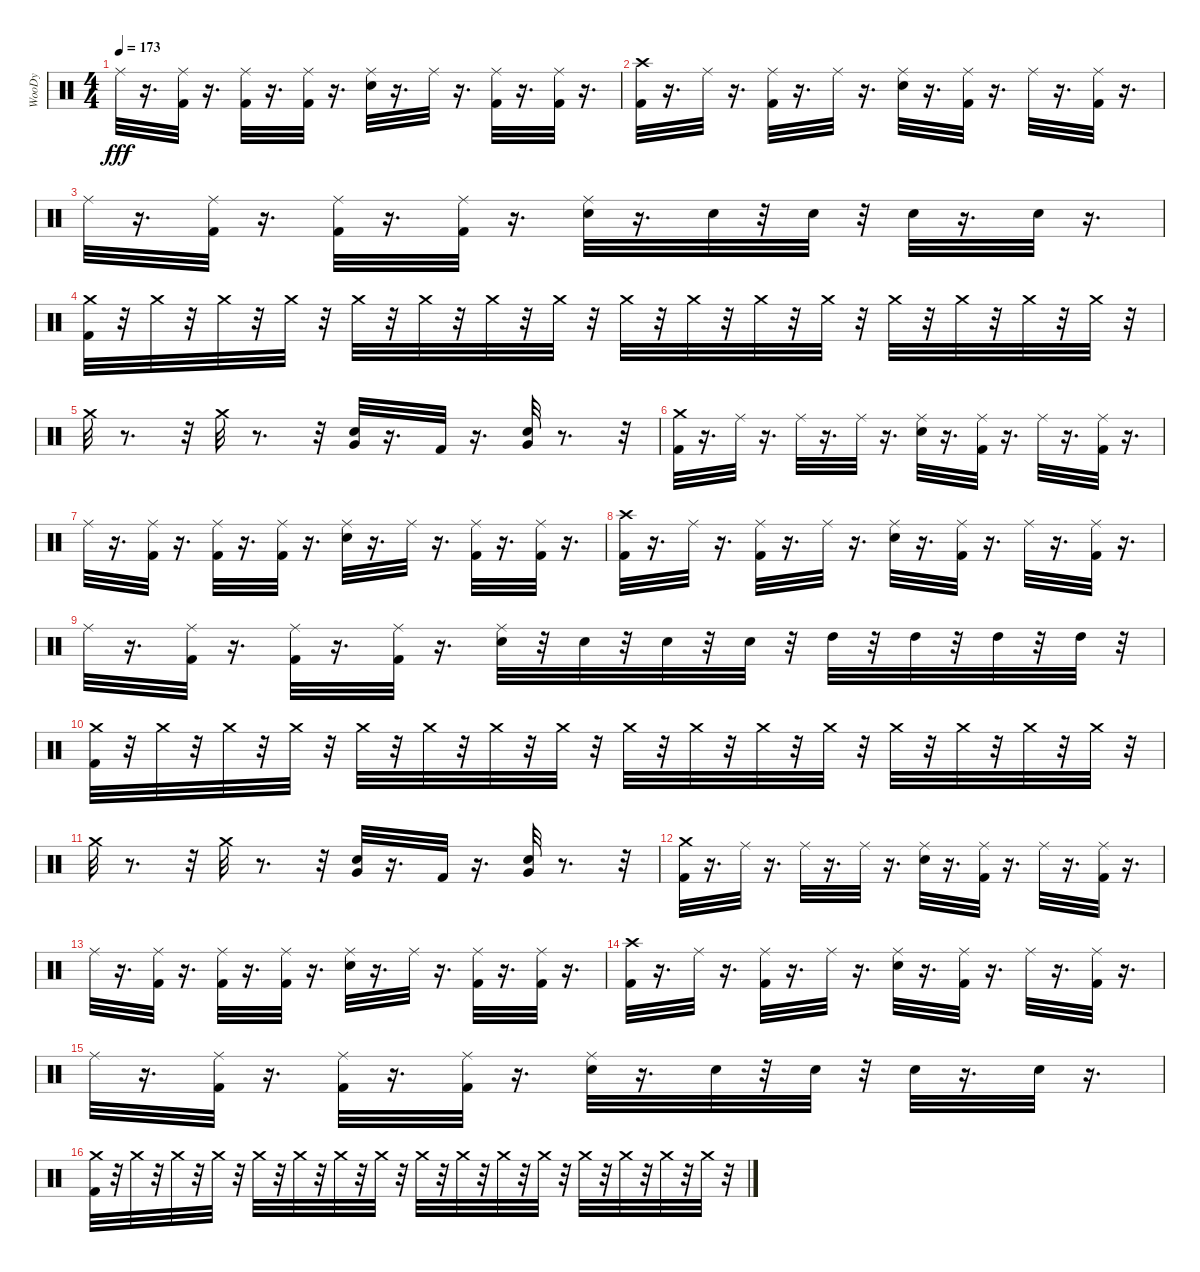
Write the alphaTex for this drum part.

\track ("WooDy" "WooDy") {instrument percussion}
\staff {score}
\articulation defaults
\ts (4 4)
\tempo 173
\clef neutral
\ks c "Ride (middle)".32{dy fff}
r.16{d} ("Kick (hit) 2" "Ride (middle)").32 r.16{d} ("Kick (hit) 2" "Ride (middle)").32 r.16{d} ("Kick (hit) 2" "Ride (middle)").32 r.16{d} ("Electric Snare (hit)" "Ride (middle)").32 r.16{d} "Ride (middle)".32 r.16{d} ("Kick (hit) 2" "Ride (middle)").32 r.16{d} ("Kick (hit) 2" "Ride (middle)").32 r.16{d} |
("Kick (hit) 2" "Crash high (hit)").32 r.16{d} "Ride (middle)".32 r.16{d} ("Kick (hit) 2" "Ride (middle)").32 r.16{d} "Ride (middle)".32 r.16{d} ("Electric Snare (hit)" "Ride (middle)").32 r.16{d} ("Kick (hit) 2" "Ride (middle)").32 r.16{d} "Ride (middle)".32 r.16{d} ("Kick (hit) 2" "Ride (middle)").32 r.16{d} |
"Ride (middle)".32 r.16{d} ("Kick (hit) 2" "Ride (middle)").32 r.16{d} ("Kick (hit) 2" "Ride (middle)").32 r.16{d} ("Kick (hit) 2" "Ride (middle)").32 r.16{d} ("Electric Snare (hit)" "Ride (middle)").32 r.16{d} "Electric Snare (hit)".32 r.32 "Electric Snare (hit)".32 r.32 "Electric Snare (hit)".32 r.16{d} "Electric Snare (hit)".32 r.16{d} |
("Kick (hit) 2" "Crash medium (hit)").32 r.32 "Crash medium (hit)".32 r.32 "Crash medium (hit)".32 r.32 "Crash medium (hit)".32 r.32 "Crash medium (hit)".32 r.32 "Crash medium (hit)".32 r.32 "Crash medium (hit)".32 r.32 "Crash medium (hit)".32 r.32 "Crash medium (hit)".32 r.32 "Crash medium (hit)".32 r.32 "Crash medium (hit)".32 r.32 "Crash medium (hit)".32 r.32 "Crash medium (hit)".32 r.32 "Crash medium (hit)".32 r.32 "Crash medium (hit)".32 r.32 "Crash medium (hit)".32 r.32 |
"Crash medium (hit)".32 r.8{d} r.32 "Crash medium (hit)".32 r.8{d} r.32 ("Electric Snare (hit)" "Very Low Tom (hit)").32 r.16{d} "Kick (hit) 2".32 r.16{d} ("Electric Snare (hit)" "Very Low Tom (hit)").32 r.8{d} r.32 |
("Kick (hit) 2" "Crash medium (hit)").32 r.16{d} "Ride (middle)".32 r.16{d} "Ride (middle)".32 r.16{d} "Ride (middle)".32 r.16{d} ("Electric Snare (hit)" "Ride (middle)").32 r.16{d} ("Kick (hit) 2" "Ride (middle)").32 r.16{d} "Ride (middle)".32 r.16{d} ("Kick (hit) 2" "Ride (middle)").32 r.16{d} |
"Ride (middle)".32 r.16{d} ("Kick (hit) 2" "Ride (middle)").32 r.16{d} ("Kick (hit) 2" "Ride (middle)").32 r.16{d} ("Kick (hit) 2" "Ride (middle)").32 r.16{d} ("Electric Snare (hit)" "Ride (middle)").32 r.16{d} "Ride (middle)".32 r.16{d} ("Kick (hit) 2" "Ride (middle)").32 r.16{d} ("Kick (hit) 2" "Ride (middle)").32 r.16{d} |
("Kick (hit) 2" "Crash high (hit)").32 r.16{d} "Ride (middle)".32 r.16{d} ("Kick (hit) 2" "Ride (middle)").32 r.16{d} "Ride (middle)".32 r.16{d} ("Electric Snare (hit)" "Ride (middle)").32 r.16{d} ("Kick (hit) 2" "Ride (middle)").32 r.16{d} "Ride (middle)".32 r.16{d} ("Kick (hit) 2" "Ride (middle)").32 r.16{d} |
"Ride (middle)".32 r.16{d} ("Kick (hit) 2" "Ride (middle)").32 r.16{d} ("Kick (hit) 2" "Ride (middle)").32 r.16{d} ("Kick (hit) 2" "Ride (middle)").32 r.16{d} ("Electric Snare (hit)" "Ride (middle)").32 r.32 "Electric Snare (hit)".32 r.32 "Electric Snare (hit)".32 r.32 "Electric Snare (hit)".32 r.32 "High Tom (hit)".32 r.32 "High Tom (hit)".32 r.32 "High Tom (hit)".32 r.32 "High Tom (hit)".32 r.32 |
("Kick (hit) 2" "Crash medium (hit)").32 r.32 "Crash medium (hit)".32 r.32 "Crash medium (hit)".32 r.32 "Crash medium (hit)".32 r.32 "Crash medium (hit)".32 r.32 "Crash medium (hit)".32 r.32 "Crash medium (hit)".32 r.32 "Crash medium (hit)".32 r.32 "Crash medium (hit)".32 r.32 "Crash medium (hit)".32 r.32 "Crash medium (hit)".32 r.32 "Crash medium (hit)".32 r.32 "Crash medium (hit)".32 r.32 "Crash medium (hit)".32 r.32 "Crash medium (hit)".32 r.32 "Crash medium (hit)".32 r.32 |
"Crash medium (hit)".32 r.8{d} r.32 "Crash medium (hit)".32 r.8{d} r.32 ("Electric Snare (hit)" "Very Low Tom (hit)").32 r.16{d} "Kick (hit) 2".32 r.16{d} ("Electric Snare (hit)" "Very Low Tom (hit)").32 r.8{d} r.32 |
("Kick (hit) 2" "Crash medium (hit)").32 r.16{d} "Ride (middle)".32 r.16{d} "Ride (middle)".32 r.16{d} "Ride (middle)".32 r.16{d} ("Electric Snare (hit)" "Ride (middle)").32 r.16{d} ("Kick (hit) 2" "Ride (middle)").32 r.16{d} "Ride (middle)".32 r.16{d} ("Kick (hit) 2" "Ride (middle)").32 r.16{d} |
"Ride (middle)".32 r.16{d} ("Kick (hit) 2" "Ride (middle)").32 r.16{d} ("Kick (hit) 2" "Ride (middle)").32 r.16{d} ("Kick (hit) 2" "Ride (middle)").32 r.16{d} ("Electric Snare (hit)" "Ride (middle)").32 r.16{d} "Ride (middle)".32 r.16{d} ("Kick (hit) 2" "Ride (middle)").32 r.16{d} ("Kick (hit) 2" "Ride (middle)").32 r.16{d} |
("Kick (hit) 2" "Crash high (hit)").32 r.16{d} "Ride (middle)".32 r.16{d} ("Kick (hit) 2" "Ride (middle)").32 r.16{d} "Ride (middle)".32 r.16{d} ("Electric Snare (hit)" "Ride (middle)").32 r.16{d} ("Kick (hit) 2" "Ride (middle)").32 r.16{d} "Ride (middle)".32 r.16{d} ("Kick (hit) 2" "Ride (middle)").32 r.16{d} |
"Ride (middle)".32 r.16{d} ("Kick (hit) 2" "Ride (middle)").32 r.16{d} ("Kick (hit) 2" "Ride (middle)").32 r.16{d} ("Kick (hit) 2" "Ride (middle)").32 r.16{d} ("Electric Snare (hit)" "Ride (middle)").32 r.16{d} "Electric Snare (hit)".32 r.32 "Electric Snare (hit)".32 r.32 "Electric Snare (hit)".32 r.16{d} "Electric Snare (hit)".32 r.16{d} |
("Kick (hit) 2" "Crash medium (hit)").32 r.32 "Crash medium (hit)".32 r.32 "Crash medium (hit)".32 r.32 "Crash medium (hit)".32 r.32 "Crash medium (hit)".32 r.32 "Crash medium (hit)".32 r.32 "Crash medium (hit)".32 r.32 "Crash medium (hit)".32 r.32 "Crash medium (hit)".32 r.32 "Crash medium (hit)".32 r.32 "Crash medium (hit)".32 r.32 "Crash medium (hit)".32 r.32 "Crash medium (hit)".32 r.32 "Crash medium (hit)".32 r.32 "Crash medium (hit)".32 r.32 "Crash medium (hit)".32 r.32
